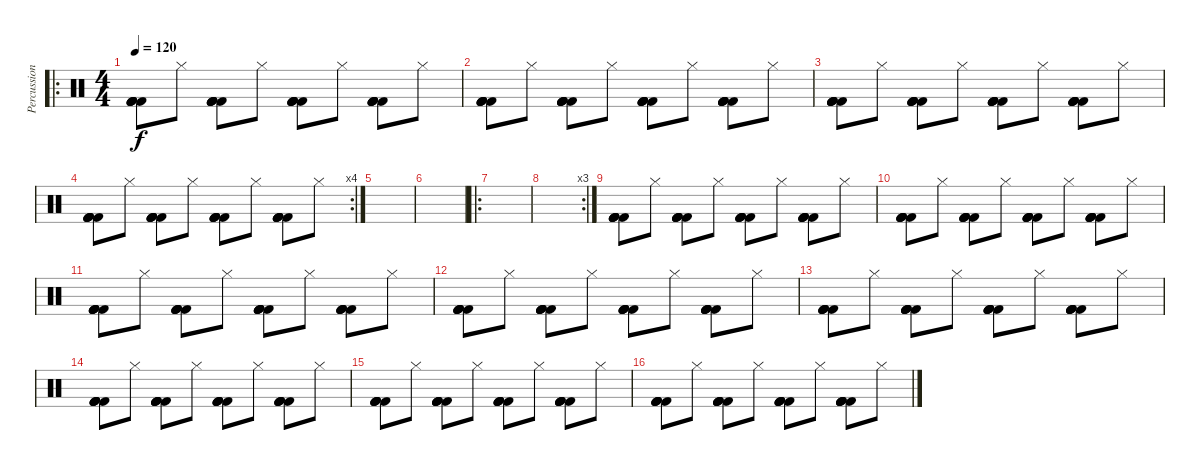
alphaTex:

\track ("Percussion" "Percussion") {instrument percussion}
\staff {score}
\articulation defaults
\ro
\ts (4 4)
\tempo 120
\clef neutral
\ks c
("Kick (hit) 2" "Kick (hit) 2" "Kick (hit) 2" "Kick (hit) 2" "Kick (hit) 2").8{dy f} "Hi-Hat (closed)".8 ("Kick (hit) 2" "Kick (hit) 2" "Kick (hit) 2" "Kick (hit) 2" "Kick (hit) 2").8 "Hi-Hat (closed)".8 ("Kick (hit) 2" "Kick (hit) 2" "Kick (hit) 2" "Kick (hit) 2" "Kick (hit) 2").8 "Hi-Hat (closed)".8 ("Kick (hit) 2" "Kick (hit) 2" "Kick (hit) 2" "Kick (hit) 2" "Kick (hit) 2").8 "Hi-Hat (closed)".8 |
("Kick (hit) 2" "Kick (hit) 2" "Kick (hit) 2" "Kick (hit) 2" "Kick (hit) 2").8 "Hi-Hat (closed)".8 ("Kick (hit) 2" "Kick (hit) 2" "Kick (hit) 2" "Kick (hit) 2" "Kick (hit) 2").8 "Hi-Hat (closed)".8 ("Kick (hit) 2" "Kick (hit) 2" "Kick (hit) 2" "Kick (hit) 2" "Kick (hit) 2").8 "Hi-Hat (closed)".8 ("Kick (hit) 2" "Kick (hit) 2" "Kick (hit) 2" "Kick (hit) 2" "Kick (hit) 2").8 "Hi-Hat (closed)".8 |
("Kick (hit) 2" "Kick (hit) 2" "Kick (hit) 2" "Kick (hit) 2" "Kick (hit) 2").8 "Hi-Hat (closed)".8 ("Kick (hit) 2" "Kick (hit) 2" "Kick (hit) 2" "Kick (hit) 2" "Kick (hit) 2").8 "Hi-Hat (closed)".8 ("Kick (hit) 2" "Kick (hit) 2" "Kick (hit) 2" "Kick (hit) 2" "Kick (hit) 2").8 "Hi-Hat (closed)".8 ("Kick (hit) 2" "Kick (hit) 2" "Kick (hit) 2" "Kick (hit) 2" "Kick (hit) 2").8 "Hi-Hat (closed)".8 |
\rc 4
("Kick (hit) 2" "Kick (hit) 2" "Kick (hit) 2" "Kick (hit) 2" "Kick (hit) 2").8 "Hi-Hat (closed)".8 ("Kick (hit) 2" "Kick (hit) 2" "Kick (hit) 2" "Kick (hit) 2" "Kick (hit) 2").8 "Hi-Hat (closed)".8 ("Kick (hit) 2" "Kick (hit) 2" "Kick (hit) 2" "Kick (hit) 2" "Kick (hit) 2").8 "Hi-Hat (closed)".8 ("Kick (hit) 2" "Kick (hit) 2" "Kick (hit) 2" "Kick (hit) 2" "Kick (hit) 2").8 "Hi-Hat (closed)".8 |
|
|
\ro
|
\rc 3
|
("Kick (hit) 2" "Kick (hit) 2" "Kick (hit) 2" "Kick (hit) 2" "Kick (hit) 2").8 "Hi-Hat (closed)".8 ("Kick (hit) 2" "Kick (hit) 2" "Kick (hit) 2" "Kick (hit) 2" "Kick (hit) 2").8 "Hi-Hat (closed)".8 ("Kick (hit) 2" "Kick (hit) 2" "Kick (hit) 2" "Kick (hit) 2" "Kick (hit) 2").8 "Hi-Hat (closed)".8 ("Kick (hit) 2" "Kick (hit) 2" "Kick (hit) 2" "Kick (hit) 2" "Kick (hit) 2").8 "Hi-Hat (closed)".8 |
("Kick (hit) 2" "Kick (hit) 2" "Kick (hit) 2" "Kick (hit) 2" "Kick (hit) 2").8 "Hi-Hat (closed)".8 ("Kick (hit) 2" "Kick (hit) 2" "Kick (hit) 2" "Kick (hit) 2" "Kick (hit) 2").8 "Hi-Hat (closed)".8 ("Kick (hit) 2" "Kick (hit) 2" "Kick (hit) 2" "Kick (hit) 2" "Kick (hit) 2").8 "Hi-Hat (closed)".8 ("Kick (hit) 2" "Kick (hit) 2" "Kick (hit) 2" "Kick (hit) 2" "Kick (hit) 2").8 "Hi-Hat (closed)".8 |
("Kick (hit) 2" "Kick (hit) 2" "Kick (hit) 2" "Kick (hit) 2" "Kick (hit) 2").8 "Hi-Hat (closed)".8 ("Kick (hit) 2" "Kick (hit) 2" "Kick (hit) 2" "Kick (hit) 2" "Kick (hit) 2").8 "Hi-Hat (closed)".8 ("Kick (hit) 2" "Kick (hit) 2" "Kick (hit) 2" "Kick (hit) 2" "Kick (hit) 2").8 "Hi-Hat (closed)".8 ("Kick (hit) 2" "Kick (hit) 2" "Kick (hit) 2" "Kick (hit) 2" "Kick (hit) 2").8 "Hi-Hat (closed)".8 |
("Kick (hit) 2" "Kick (hit) 2" "Kick (hit) 2" "Kick (hit) 2" "Kick (hit) 2").8 "Hi-Hat (closed)".8 ("Kick (hit) 2" "Kick (hit) 2" "Kick (hit) 2" "Kick (hit) 2" "Kick (hit) 2").8 "Hi-Hat (closed)".8 ("Kick (hit) 2" "Kick (hit) 2" "Kick (hit) 2" "Kick (hit) 2" "Kick (hit) 2").8 "Hi-Hat (closed)".8 ("Kick (hit) 2" "Kick (hit) 2" "Kick (hit) 2" "Kick (hit) 2" "Kick (hit) 2").8 "Hi-Hat (closed)".8 |
("Kick (hit) 2" "Kick (hit) 2" "Kick (hit) 2" "Kick (hit) 2" "Kick (hit) 2").8 "Hi-Hat (closed)".8 ("Kick (hit) 2" "Kick (hit) 2" "Kick (hit) 2" "Kick (hit) 2" "Kick (hit) 2").8 "Hi-Hat (closed)".8 ("Kick (hit) 2" "Kick (hit) 2" "Kick (hit) 2" "Kick (hit) 2" "Kick (hit) 2").8 "Hi-Hat (closed)".8 ("Kick (hit) 2" "Kick (hit) 2" "Kick (hit) 2" "Kick (hit) 2" "Kick (hit) 2").8 "Hi-Hat (closed)".8 |
("Kick (hit) 2" "Kick (hit) 2" "Kick (hit) 2" "Kick (hit) 2" "Kick (hit) 2").8 "Hi-Hat (closed)".8 ("Kick (hit) 2" "Kick (hit) 2" "Kick (hit) 2" "Kick (hit) 2" "Kick (hit) 2").8 "Hi-Hat (closed)".8 ("Kick (hit) 2" "Kick (hit) 2" "Kick (hit) 2" "Kick (hit) 2" "Kick (hit) 2").8 "Hi-Hat (closed)".8 ("Kick (hit) 2" "Kick (hit) 2" "Kick (hit) 2" "Kick (hit) 2" "Kick (hit) 2").8 "Hi-Hat (closed)".8 |
("Kick (hit) 2" "Kick (hit) 2" "Kick (hit) 2" "Kick (hit) 2" "Kick (hit) 2").8 "Hi-Hat (closed)".8 ("Kick (hit) 2" "Kick (hit) 2" "Kick (hit) 2" "Kick (hit) 2" "Kick (hit) 2").8 "Hi-Hat (closed)".8 ("Kick (hit) 2" "Kick (hit) 2" "Kick (hit) 2" "Kick (hit) 2" "Kick (hit) 2").8 "Hi-Hat (closed)".8 ("Kick (hit) 2" "Kick (hit) 2" "Kick (hit) 2" "Kick (hit) 2" "Kick (hit) 2").8 "Hi-Hat (closed)".8 |
("Kick (hit) 2" "Kick (hit) 2" "Kick (hit) 2" "Kick (hit) 2" "Kick (hit) 2").8 "Hi-Hat (closed)".8 ("Kick (hit) 2" "Kick (hit) 2" "Kick (hit) 2" "Kick (hit) 2" "Kick (hit) 2").8 "Hi-Hat (closed)".8 ("Kick (hit) 2" "Kick (hit) 2" "Kick (hit) 2" "Kick (hit) 2" "Kick (hit) 2").8 "Hi-Hat (closed)".8 ("Kick (hit) 2" "Kick (hit) 2" "Kick (hit) 2" "Kick (hit) 2" "Kick (hit) 2").8 "Hi-Hat (closed)".8
